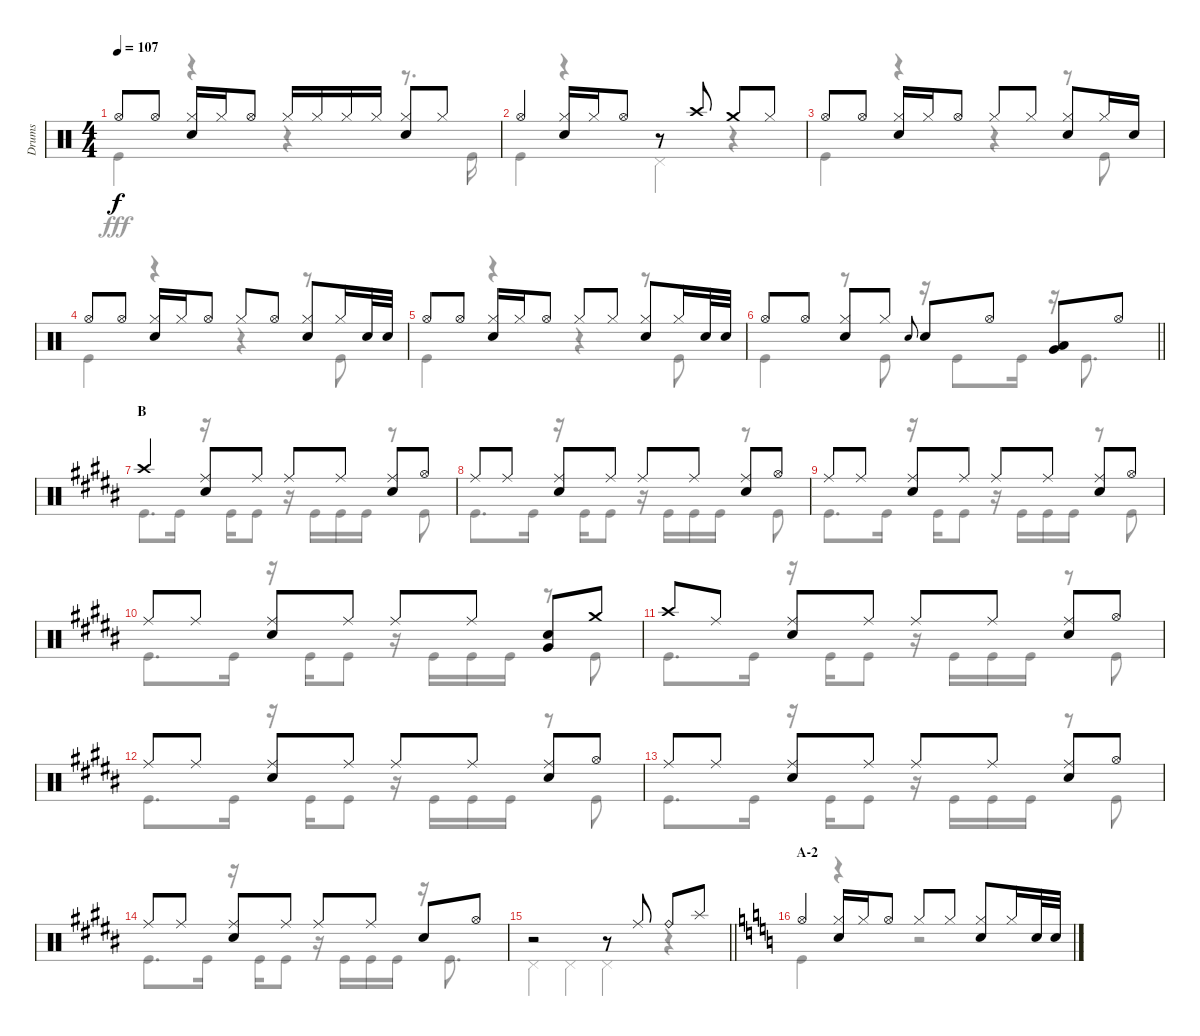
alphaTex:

\track ("Drums" "Drums") {instrument percussion}
\staff {score}
\articulation defaults
\voice
\ts (4 4)
\tempo 107
\clef neutral
\ks c "Hi-Hat (open)".8{dy f} "Hi-Hat (open)".8
("Hi-Hat (closed)" "Snare (hit) 2").16 "Hi-Hat (closed)".16 "Hi-Hat (open)".8 "Hi-Hat (closed)".16 "Hi-Hat (closed)".16 "Hi-Hat (closed)".16 "Hi-Hat (closed)".16 ("Hi-Hat (closed)" "Snare (hit) 2").8 "Hi-Hat (closed)".8 |
"Hi-Hat (open)".4 ("Hi-Hat (closed)" "Snare (hit) 2").16 "Hi-Hat (closed)".16 "Hi-Hat (open)".8 r.8 "Crash high (hit)".8 "Crash medium (hit)".8 "Hi-Hat (closed)".8 |
"Hi-Hat (open)".8 "Hi-Hat (open)".8 ("Hi-Hat (closed)" "Snare (hit) 2").16 "Hi-Hat (closed)".16 "Hi-Hat (open)".8 "Hi-Hat (closed)".8 "Hi-Hat (closed)".8 ("Hi-Hat (closed)" "Snare (hit) 2").8 "Hi-Hat (closed)".16 "Snare (hit) 2".16 |
"Hi-Hat (open)".8 "Hi-Hat (open)".8 ("Hi-Hat (closed)" "Snare (hit) 2").16 "Hi-Hat (closed)".16 "Hi-Hat (open)".8 "Hi-Hat (closed)".8 "Hi-Hat (open)".8 ("Hi-Hat (closed)" "Snare (hit) 2").8 "Hi-Hat (closed)".16 "Snare (hit) 2".32 "Snare (hit) 2".32 |
"Hi-Hat (open)".8 "Hi-Hat (open)".8 ("Hi-Hat (closed)" "Snare (hit) 2").16 "Hi-Hat (closed)".16 "Hi-Hat (open)".8 "Hi-Hat (closed)".8 "Hi-Hat (closed)".8 ("Hi-Hat (closed)" "Snare (hit) 2").8 "Hi-Hat (closed)".16 "Snare (hit) 2".32 "Snare (hit) 2".32 |
\barLineRight lightlight "Hi-Hat (open)".8 "Hi-Hat (open)".8
("Hi-Hat (closed)" "Snare (hit) 2").8 "Hi-Hat (closed)".8 "Snare (hit) 2".8{gr onbeat} "Snare (hit) 2".8 "Hi-Hat (open)".8 ("Low Tom (hit)" "Very Low Tom (hit)").8 "Hi-Hat (open)".8 |
\section ("" "B")
\ks b "Crash high (hit)".4
("Ride (middle)" "Snare (hit) 2").8 "Ride (middle)".8 "Ride (middle)".8 "Ride (middle)".8 ("Ride (middle)" "Snare (hit) 2").8 "Hi-Hat (open)".8 |
"Ride (middle)".8 "Ride (middle)".8 ("Ride (middle)" "Snare (hit) 2").8 "Ride (middle)".8 "Ride (middle)".8 "Ride (middle)".8 ("Ride (middle)" "Snare (hit) 2").8 "Hi-Hat (open)".8 |
"Ride (middle)".8 "Ride (middle)".8 ("Ride (middle)" "Snare (hit) 2").8 "Ride (middle)".8 "Ride (middle)".8 "Ride (middle)".8 ("Ride (middle)" "Snare (hit) 2").8 "Hi-Hat (open)".8 |
"Ride (middle)".8 "Ride (middle)".8 ("Ride (middle)" "Snare (hit) 2").8 "Ride (middle)".8 "Ride (middle)".8 "Ride (middle)".8 ("Snare (hit) 2" "Very Low Tom (hit)").8 "Crash medium (hit)".8 |
"Crash high (hit)".8 "Ride (middle)".8 ("Ride (middle)" "Snare (hit) 2").8 "Ride (middle)".8 "Ride (middle)".8 "Ride (middle)".8 ("Ride (middle)" "Snare (hit) 2").8 "Hi-Hat (open)".8 |
"Ride (middle)".8 "Ride (middle)".8 ("Ride (middle)" "Snare (hit) 2").8 "Ride (middle)".8 "Ride (middle)".8 "Ride (middle)".8 ("Ride (middle)" "Snare (hit) 2").8 "Hi-Hat (open)".8 |
"Ride (middle)".8 "Ride (middle)".8 ("Ride (middle)" "Snare (hit) 2").8 "Ride (middle)".8 "Ride (middle)".8 "Ride (middle)".8 ("Ride (middle)" "Snare (hit) 2").8 "Hi-Hat (open)".8 |
"Ride (middle)".8 "Ride (middle)".8 ("Ride (middle)" "Snare (hit) 2").8 "Ride (middle)".8 "Ride (middle)".8 "Ride (middle)".8 "Snare (hit) 2".8 "Hi-Hat (open)".8 |
\barLineRight lightlight
r.2 r.8 "Ride (middle)".8 "Ride (bell)".8 "Splash (hit)".8 |
\section ("" "A-2")
\ks c "Hi-Hat (open)".4
("Hi-Hat (closed)" "Snare (hit) 2").16 "Hi-Hat (closed)".16 "Hi-Hat (open)".8 "Hi-Hat (closed)".8 "Hi-Hat (closed)".8 ("Hi-Hat (closed)" "Snare (hit) 2").8 "Hi-Hat (closed)".16 "Snare (hit) 2".32 "Snare (hit) 2".32
\voice
\clef neutral
\ottava regular
\simile none
\ks c "Kick (hit)".4{dy fff}
r.4 r.4 r.8{d} "Kick (hit)".16 |
"Kick (hit)".4 r.4 "Pedal Hi-Hat (hit)".4 r.4 |
"Kick (hit)".4 r.4 r.4 r.8 "Kick (hit)".8 |
"Kick (hit)".4 r.4 r.4 r.8 "Kick (hit)".8 |
"Kick (hit)".4 r.4 r.4 r.8 "Kick (hit)".8 |
\barLineRight lightlight "Kick (hit)".4
r.8 "Kick (hit)".8 r.16 "Kick (hit)".8 "Kick (hit)".16 r.16 "Kick (hit)".8{d} |
\ks b "Kick (hit)".8{d} "Kick (hit)".16
r.16 "Kick (hit)".16 "Kick (hit)".8 r.16 "Kick (hit)".16 "Kick (hit)".16 "Kick (hit)".16 r.8 "Kick (hit)".8 |
"Kick (hit)".8{d} "Kick (hit)".16 r.16 "Kick (hit)".16 "Kick (hit)".8 r.16 "Kick (hit)".16 "Kick (hit)".16 "Kick (hit)".16 r.8 "Kick (hit)".8 |
"Kick (hit)".8{d} "Kick (hit)".16 r.16 "Kick (hit)".16 "Kick (hit)".8 r.16 "Kick (hit)".16 "Kick (hit)".16 "Kick (hit)".16 r.8 "Kick (hit)".8 |
"Kick (hit)".8{d} "Kick (hit)".16 r.16 "Kick (hit)".16 "Kick (hit)".8 r.16 "Kick (hit)".16 "Kick (hit)".16 "Kick (hit)".16 r.8 "Kick (hit)".8 |
"Kick (hit)".8{d} "Kick (hit)".16 r.16 "Kick (hit)".16 "Kick (hit)".8 r.16 "Kick (hit)".16 "Kick (hit)".16 "Kick (hit)".16 r.8 "Kick (hit)".8 |
"Kick (hit)".8{d} "Kick (hit)".16 r.16 "Kick (hit)".16 "Kick (hit)".8 r.16 "Kick (hit)".16 "Kick (hit)".16 "Kick (hit)".16 r.8 "Kick (hit)".8 |
"Kick (hit)".8{d} "Kick (hit)".16 r.16 "Kick (hit)".16 "Kick (hit)".8 r.16 "Kick (hit)".16 "Kick (hit)".16 "Kick (hit)".16 r.8 "Kick (hit)".8 |
"Kick (hit)".8{d} "Kick (hit)".16 r.16 "Kick (hit)".16 "Kick (hit)".8 r.16 "Kick (hit)".16 "Kick (hit)".16 "Kick (hit)".16 r.16 "Kick (hit)".8{d} |
\barLineRight lightlight "Pedal Hi-Hat (hit)".4 "Pedal Hi-Hat (hit)".4 "Pedal Hi-Hat (hit)".4
r.4 |
\ks c "Kick (hit)".4
r.4 r.2
